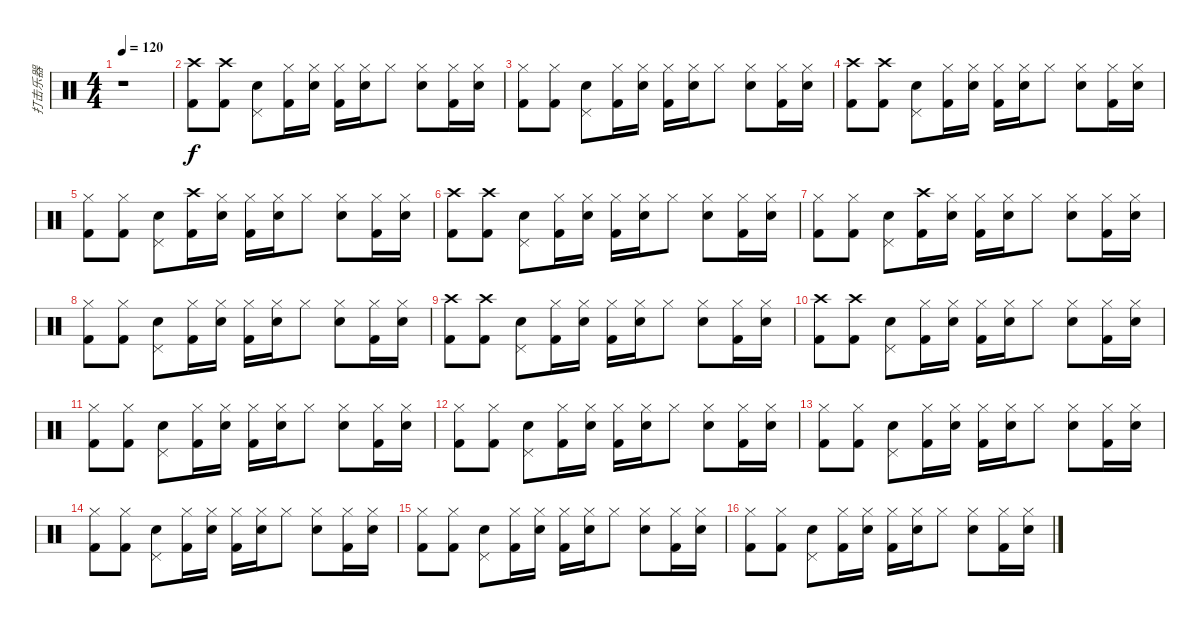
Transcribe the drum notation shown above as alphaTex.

\track ("打击乐器" "打击乐器") {instrument percussion}
\staff {score}
\articulation defaults
\ts (4 4)
\tempo 120
\clef neutral
\ks c
r.1{dy f} |
("Crash high (hit)" "Kick (hit) 2").8 ("Crash high (hit)" "Kick (hit) 2").8 ("Pedal Hi-Hat (hit)" "Snare (hit) 2").8 ("Hi-Hat (closed)" "Kick (hit) 2").16 ("Hi-Hat (closed)" "Snare (hit) 2").16 ("Hi-Hat (closed)" "Kick (hit) 2").16 ("Hi-Hat (closed)" "Snare (hit) 2").16 "Hi-Hat (closed)".8 ("Hi-Hat (closed)" "Snare (hit) 2").8 ("Hi-Hat (closed)" "Kick (hit) 2").16 ("Hi-Hat (closed)" "Snare (hit) 2").16 |
("Hi-Hat (closed)" "Kick (hit) 2").8 ("Hi-Hat (closed)" "Kick (hit) 2").8 ("Pedal Hi-Hat (hit)" "Snare (hit) 2").8 ("Hi-Hat (closed)" "Kick (hit) 2").16 ("Hi-Hat (closed)" "Snare (hit) 2").16 ("Hi-Hat (closed)" "Kick (hit) 2").16 ("Hi-Hat (closed)" "Snare (hit) 2").16 "Hi-Hat (closed)".8 ("Hi-Hat (closed)" "Snare (hit) 2").8 ("Hi-Hat (closed)" "Kick (hit) 2").16 ("Hi-Hat (closed)" "Snare (hit) 2").16 |
("Crash high (hit)" "Kick (hit) 2").8 ("Crash high (hit)" "Kick (hit) 2").8 ("Pedal Hi-Hat (hit)" "Snare (hit) 2").8 ("Hi-Hat (closed)" "Kick (hit) 2").16 ("Hi-Hat (closed)" "Snare (hit) 2").16 ("Hi-Hat (closed)" "Kick (hit) 2").16 ("Hi-Hat (closed)" "Snare (hit) 2").16 "Hi-Hat (closed)".8 ("Hi-Hat (closed)" "Snare (hit) 2").8 ("Hi-Hat (closed)" "Kick (hit) 2").16 ("Hi-Hat (closed)" "Snare (hit) 2").16 |
("Hi-Hat (closed)" "Kick (hit) 2").8 ("Hi-Hat (closed)" "Kick (hit) 2").8 ("Pedal Hi-Hat (hit)" "Snare (hit) 2").8 ("Crash high (hit)" "Kick (hit) 2").16 ("Hi-Hat (closed)" "Snare (hit) 2").16 ("Hi-Hat (closed)" "Kick (hit) 2").16 ("Hi-Hat (closed)" "Snare (hit) 2").16 "Hi-Hat (closed)".8 ("Hi-Hat (closed)" "Snare (hit) 2").8 ("Hi-Hat (closed)" "Kick (hit) 2").16 ("Hi-Hat (closed)" "Snare (hit) 2").16 |
("Crash high (hit)" "Kick (hit) 2").8 ("Crash high (hit)" "Kick (hit) 2").8 ("Pedal Hi-Hat (hit)" "Snare (hit) 2").8 ("Hi-Hat (closed)" "Kick (hit) 2").16 ("Hi-Hat (closed)" "Snare (hit) 2").16 ("Hi-Hat (closed)" "Kick (hit) 2").16 ("Hi-Hat (closed)" "Snare (hit) 2").16 "Hi-Hat (closed)".8 ("Hi-Hat (closed)" "Snare (hit) 2").8 ("Hi-Hat (closed)" "Kick (hit) 2").16 ("Hi-Hat (closed)" "Snare (hit) 2").16 |
("Hi-Hat (closed)" "Kick (hit) 2").8 ("Hi-Hat (closed)" "Kick (hit) 2").8 ("Pedal Hi-Hat (hit)" "Snare (hit) 2").8 ("Crash high (hit)" "Kick (hit) 2").16 ("Hi-Hat (closed)" "Snare (hit) 2").16 ("Hi-Hat (closed)" "Kick (hit) 2").16 ("Hi-Hat (closed)" "Snare (hit) 2").16 "Hi-Hat (closed)".8 ("Hi-Hat (closed)" "Snare (hit) 2").8 ("Hi-Hat (closed)" "Kick (hit) 2").16 ("Hi-Hat (closed)" "Snare (hit) 2").16 |
("Hi-Hat (closed)" "Kick (hit) 2").8 ("Hi-Hat (closed)" "Kick (hit) 2").8 ("Pedal Hi-Hat (hit)" "Snare (hit) 2").8 ("Hi-Hat (closed)" "Kick (hit) 2").16 ("Hi-Hat (closed)" "Snare (hit) 2").16 ("Hi-Hat (closed)" "Kick (hit) 2").16 ("Hi-Hat (closed)" "Snare (hit) 2").16 "Hi-Hat (closed)".8 ("Hi-Hat (closed)" "Snare (hit) 2").8 ("Hi-Hat (closed)" "Kick (hit) 2").16 ("Hi-Hat (closed)" "Snare (hit) 2").16 |
("Crash high (hit)" "Kick (hit) 2").8 ("Crash high (hit)" "Kick (hit) 2").8 ("Pedal Hi-Hat (hit)" "Snare (hit) 2").8 ("Hi-Hat (closed)" "Kick (hit) 2").16 ("Hi-Hat (closed)" "Snare (hit) 2").16 ("Hi-Hat (closed)" "Kick (hit) 2").16 ("Hi-Hat (closed)" "Snare (hit) 2").16 "Hi-Hat (closed)".8 ("Hi-Hat (closed)" "Snare (hit) 2").8 ("Hi-Hat (closed)" "Kick (hit) 2").16 ("Hi-Hat (closed)" "Snare (hit) 2").16 |
("Crash high (hit)" "Kick (hit) 2").8 ("Crash high (hit)" "Kick (hit) 2").8 ("Pedal Hi-Hat (hit)" "Snare (hit) 2").8 ("Hi-Hat (closed)" "Kick (hit) 2").16 ("Hi-Hat (closed)" "Snare (hit) 2").16 ("Hi-Hat (closed)" "Kick (hit) 2").16 ("Hi-Hat (closed)" "Snare (hit) 2").16 "Hi-Hat (closed)".8 ("Hi-Hat (closed)" "Snare (hit) 2").8 ("Hi-Hat (closed)" "Kick (hit) 2").16 ("Hi-Hat (closed)" "Snare (hit) 2").16 |
("Hi-Hat (closed)" "Kick (hit) 2").8 ("Hi-Hat (closed)" "Kick (hit) 2").8 ("Pedal Hi-Hat (hit)" "Snare (hit) 2").8 ("Hi-Hat (closed)" "Kick (hit) 2").16 ("Hi-Hat (closed)" "Snare (hit) 2").16 ("Hi-Hat (closed)" "Kick (hit) 2").16 ("Hi-Hat (closed)" "Snare (hit) 2").16 "Hi-Hat (closed)".8 ("Hi-Hat (closed)" "Snare (hit) 2").8 ("Hi-Hat (closed)" "Kick (hit) 2").16 ("Hi-Hat (closed)" "Snare (hit) 2").16 |
("Hi-Hat (closed)" "Kick (hit) 2").8 ("Hi-Hat (closed)" "Kick (hit) 2").8 ("Pedal Hi-Hat (hit)" "Snare (hit) 2").8 ("Hi-Hat (closed)" "Kick (hit) 2").16 ("Hi-Hat (closed)" "Snare (hit) 2").16 ("Hi-Hat (closed)" "Kick (hit) 2").16 ("Hi-Hat (closed)" "Snare (hit) 2").16 "Hi-Hat (closed)".8 ("Hi-Hat (closed)" "Snare (hit) 2").8 ("Hi-Hat (closed)" "Kick (hit) 2").16 ("Hi-Hat (closed)" "Snare (hit) 2").16 |
("Hi-Hat (closed)" "Kick (hit) 2").8 ("Hi-Hat (closed)" "Kick (hit) 2").8 ("Pedal Hi-Hat (hit)" "Snare (hit) 2").8 ("Hi-Hat (closed)" "Kick (hit) 2").16 ("Hi-Hat (closed)" "Snare (hit) 2").16 ("Hi-Hat (closed)" "Kick (hit) 2").16 ("Hi-Hat (closed)" "Snare (hit) 2").16 "Hi-Hat (closed)".8 ("Hi-Hat (closed)" "Snare (hit) 2").8 ("Hi-Hat (closed)" "Kick (hit) 2").16 ("Hi-Hat (closed)" "Snare (hit) 2").16 |
("Hi-Hat (closed)" "Kick (hit) 2").8 ("Hi-Hat (closed)" "Kick (hit) 2").8 ("Pedal Hi-Hat (hit)" "Snare (hit) 2").8 ("Hi-Hat (closed)" "Kick (hit) 2").16 ("Hi-Hat (closed)" "Snare (hit) 2").16 ("Hi-Hat (closed)" "Kick (hit) 2").16 ("Hi-Hat (closed)" "Snare (hit) 2").16 "Hi-Hat (closed)".8 ("Hi-Hat (closed)" "Snare (hit) 2").8 ("Hi-Hat (closed)" "Kick (hit) 2").16 ("Hi-Hat (closed)" "Snare (hit) 2").16 |
("Hi-Hat (closed)" "Kick (hit) 2").8 ("Hi-Hat (closed)" "Kick (hit) 2").8 ("Pedal Hi-Hat (hit)" "Snare (hit) 2").8 ("Hi-Hat (closed)" "Kick (hit) 2").16 ("Hi-Hat (closed)" "Snare (hit) 2").16 ("Hi-Hat (closed)" "Kick (hit) 2").16 ("Hi-Hat (closed)" "Snare (hit) 2").16 "Hi-Hat (closed)".8 ("Hi-Hat (closed)" "Snare (hit) 2").8 ("Hi-Hat (closed)" "Kick (hit) 2").16 ("Hi-Hat (closed)" "Snare (hit) 2").16 |
("Hi-Hat (closed)" "Kick (hit) 2").8 ("Hi-Hat (closed)" "Kick (hit) 2").8 ("Pedal Hi-Hat (hit)" "Snare (hit) 2").8 ("Hi-Hat (closed)" "Kick (hit) 2").16 ("Hi-Hat (closed)" "Snare (hit) 2").16 ("Hi-Hat (closed)" "Kick (hit) 2").16 ("Hi-Hat (closed)" "Snare (hit) 2").16 "Hi-Hat (closed)".8 ("Hi-Hat (closed)" "Snare (hit) 2").8 ("Hi-Hat (closed)" "Kick (hit) 2").16 ("Hi-Hat (closed)" "Snare (hit) 2").16
